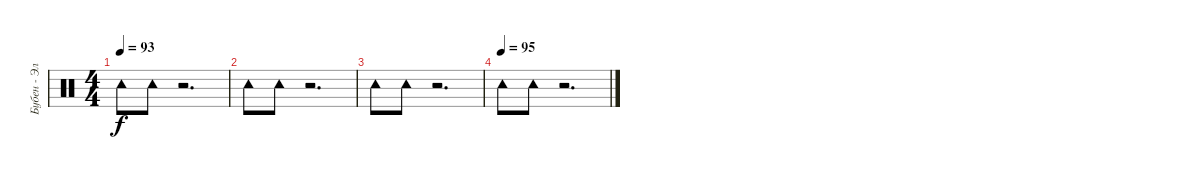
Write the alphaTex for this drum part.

\track ("Бубен - Элисон Моссхарт" "Бубен - Эл") {instrument percussion}
\staff {score}
\articulation defaults
\ts (4 4)
\tempo 93
\clef neutral
\ks c "Tambourine (hit)".8{dy f} "Tambourine (hit)".8
r.2{d} |
"Tambourine (hit)".8 "Tambourine (hit)".8 r.2{d} |
"Tambourine (hit)".8 "Tambourine (hit)".8 r.2{d} |
\tempo (95)
"Tambourine (hit)".8 "Tambourine (hit)".8 r.2{d}
